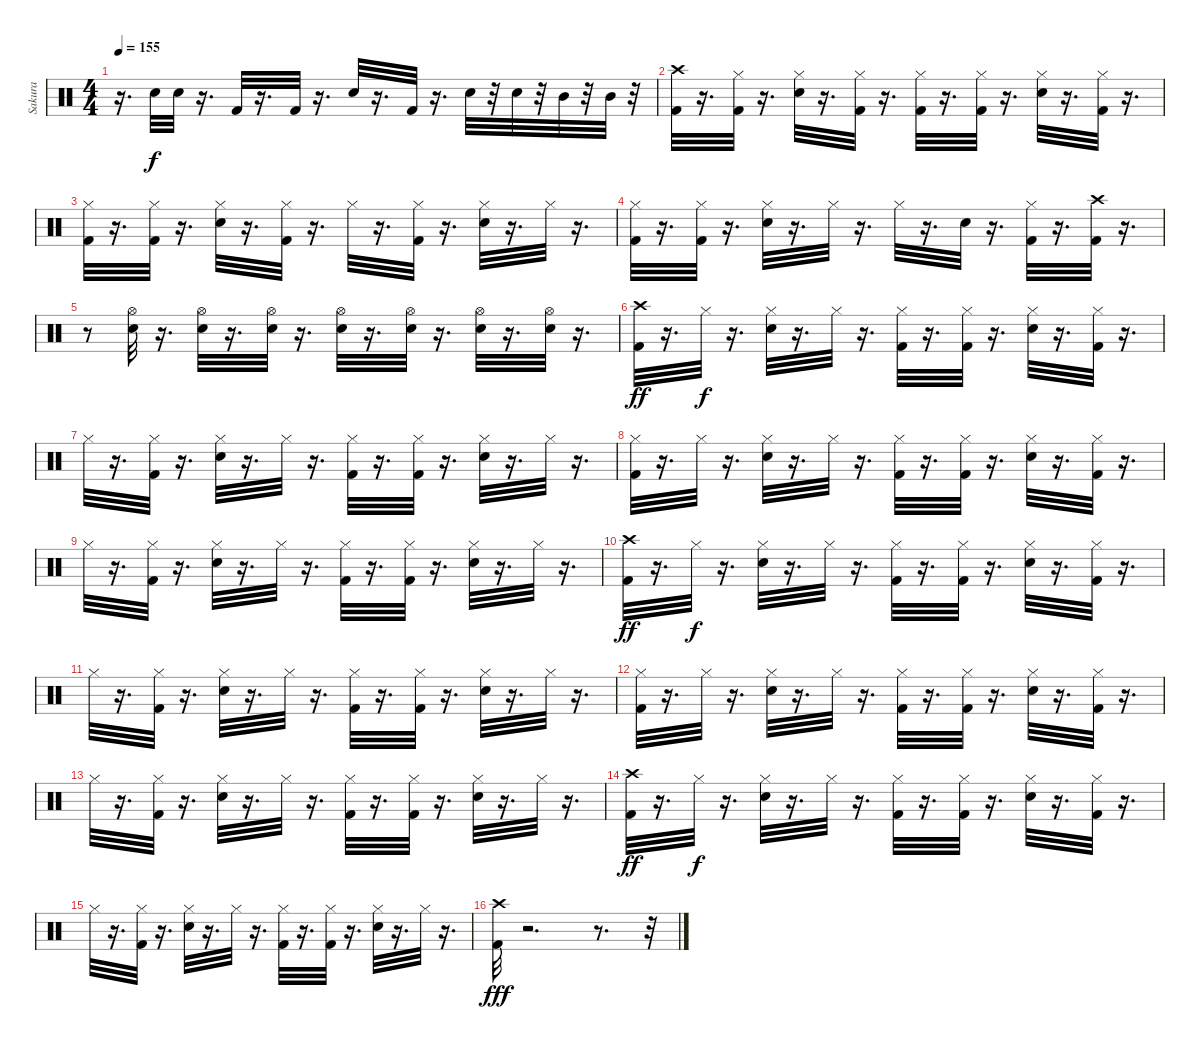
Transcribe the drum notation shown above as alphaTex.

\track ("Sakura" "Sakura") {instrument percussion}
\staff {score}
\articulation defaults
\ts (4 4)
\tempo 155
\clef neutral
\ks c
r.16{d dy fff} "Snare (hit) 2".32{dy f} "Snare (hit) 2".32 r.16{d} "Kick (hit) 2".32 r.16{d} "Kick (hit) 2".32 r.16{d} "Snare (hit) 2".32 r.16{d} "Kick (hit) 2".32 r.16{d} "Snare (hit) 2".32 r.32 "Snare (hit) 2".32 r.32 "Mid Tom (hit)".32 r.32 "Mid Tom (hit)".32 r.32 |
("Crash high (hit)" "Kick (hit) 2").32 r.16{d} ("Hi-Hat (closed)" "Kick (hit) 2").32 r.16{d} ("Hi-Hat (closed)" "Snare (hit) 2").32 r.16{d} ("Hi-Hat (closed)" "Kick (hit) 2").32 r.16{d} ("Kick (hit) 2" "Hi-Hat (closed)").32 r.16{d} ("Kick (hit) 2" "Hi-Hat (closed)").32 r.16{d} ("Hi-Hat (closed)" "Snare (hit) 2").32 r.16{d} ("Kick (hit) 2" "Hi-Hat (closed)").32 r.16{d} |
("Kick (hit) 2" "Hi-Hat (closed)").32 r.16{d} ("Kick (hit) 2" "Hi-Hat (closed)").32 r.16{d} ("Hi-Hat (closed)" "Snare (hit) 2").32 r.16{d} ("Kick (hit) 2" "Hi-Hat (closed)").32 r.16{d} "Hi-Hat (closed)".32 r.16{d} ("Hi-Hat (closed)" "Kick (hit) 2").32 r.16{d} ("Hi-Hat (closed)" "Snare (hit) 2").32 r.16{d} "Hi-Hat (closed)".32 r.16{d} |
("Hi-Hat (closed)" "Kick (hit) 2").32 r.16{d} ("Hi-Hat (closed)" "Kick (hit) 2").32 r.16{d} ("Hi-Hat (closed)" "Snare (hit) 2").32 r.16{d} "Hi-Hat (closed)".32 r.16{d} "Hi-Hat (closed)".32 r.16{d} "Snare (hit) 2".32 r.16{d} ("Hi-Hat (closed)" "Kick (hit) 2").32 r.16{d} ("Crash high (hit)" "Kick (hit) 2").32 r.16{d} |
r.8 ("Hi-Hat (open)" "Snare (hit) 2").32 r.16{d} ("Hi-Hat (open)" "Snare (hit) 2").32 r.16{d} ("Hi-Hat (open)" "Snare (hit) 2").32 r.16{d} ("Hi-Hat (open)" "Snare (hit) 2").32 r.16{d} ("Hi-Hat (open)" "Snare (hit) 2").32 r.16{d} ("Hi-Hat (open)" "Snare (hit) 2").32 r.16{d} ("Hi-Hat (open)" "Snare (hit) 2").32 r.16{d} |
("Crash high (hit)" "Kick (hit) 2").32{dy ff} r.16{d} "Hi-Hat (closed)".32{dy f} r.16{d} ("Hi-Hat (closed)" "Snare (hit) 2").32 r.16{d} "Hi-Hat (closed)".32 r.16{d} ("Hi-Hat (closed)" "Kick (hit) 2").32 r.16{d} ("Hi-Hat (closed)" "Kick (hit) 2").32 r.16{d} ("Hi-Hat (closed)" "Snare (hit) 2").32 r.16{d} ("Hi-Hat (closed)" "Kick (hit) 2").32 r.16{d} |
"Hi-Hat (closed)".32 r.16{d} ("Hi-Hat (closed)" "Kick (hit) 2").32 r.16{d} ("Hi-Hat (closed)" "Snare (hit) 2").32 r.16{d} "Hi-Hat (closed)".32 r.16{d} ("Hi-Hat (closed)" "Kick (hit) 2").32 r.16{d} ("Hi-Hat (closed)" "Kick (hit) 2").32 r.16{d} ("Hi-Hat (closed)" "Snare (hit) 2").32 r.16{d} "Hi-Hat (closed)".32 r.16{d} |
("Hi-Hat (closed)" "Kick (hit) 2").32 r.16{d} "Hi-Hat (closed)".32 r.16{d} ("Hi-Hat (closed)" "Snare (hit) 2").32 r.16{d} "Hi-Hat (closed)".32 r.16{d} ("Hi-Hat (closed)" "Kick (hit) 2").32 r.16{d} ("Hi-Hat (closed)" "Kick (hit) 2").32 r.16{d} ("Hi-Hat (closed)" "Snare (hit) 2").32 r.16{d} ("Hi-Hat (closed)" "Kick (hit) 2").32 r.16{d} |
"Hi-Hat (closed)".32 r.16{d} ("Hi-Hat (closed)" "Kick (hit) 2").32 r.16{d} ("Hi-Hat (closed)" "Snare (hit) 2").32 r.16{d} "Hi-Hat (closed)".32 r.16{d} ("Hi-Hat (closed)" "Kick (hit) 2").32 r.16{d} ("Hi-Hat (closed)" "Kick (hit) 2").32 r.16{d} ("Hi-Hat (closed)" "Snare (hit) 2").32 r.16{d} "Hi-Hat (closed)".32 r.16{d} |
("Crash high (hit)" "Kick (hit) 2").32{dy ff} r.16{d} "Hi-Hat (closed)".32{dy f} r.16{d} ("Hi-Hat (closed)" "Snare (hit) 2").32 r.16{d} "Hi-Hat (closed)".32 r.16{d} ("Hi-Hat (closed)" "Kick (hit) 2").32 r.16{d} ("Hi-Hat (closed)" "Kick (hit) 2").32 r.16{d} ("Hi-Hat (closed)" "Snare (hit) 2").32 r.16{d} ("Hi-Hat (closed)" "Kick (hit) 2").32 r.16{d} |
"Hi-Hat (closed)".32 r.16{d} ("Hi-Hat (closed)" "Kick (hit) 2").32 r.16{d} ("Hi-Hat (closed)" "Snare (hit) 2").32 r.16{d} "Hi-Hat (closed)".32 r.16{d} ("Hi-Hat (closed)" "Kick (hit) 2").32 r.16{d} ("Hi-Hat (closed)" "Kick (hit) 2").32 r.16{d} ("Hi-Hat (closed)" "Snare (hit) 2").32 r.16{d} "Hi-Hat (closed)".32 r.16{d} |
("Hi-Hat (closed)" "Kick (hit) 2").32 r.16{d} "Hi-Hat (closed)".32 r.16{d} ("Hi-Hat (closed)" "Snare (hit) 2").32 r.16{d} "Hi-Hat (closed)".32 r.16{d} ("Hi-Hat (closed)" "Kick (hit) 2").32 r.16{d} ("Hi-Hat (closed)" "Kick (hit) 2").32 r.16{d} ("Hi-Hat (closed)" "Snare (hit) 2").32 r.16{d} ("Hi-Hat (closed)" "Kick (hit) 2").32 r.16{d} |
"Hi-Hat (closed)".32 r.16{d} ("Hi-Hat (closed)" "Kick (hit) 2").32 r.16{d} ("Hi-Hat (closed)" "Snare (hit) 2").32 r.16{d} "Hi-Hat (closed)".32 r.16{d} ("Hi-Hat (closed)" "Kick (hit) 2").32 r.16{d} ("Hi-Hat (closed)" "Kick (hit) 2").32 r.16{d} ("Hi-Hat (closed)" "Snare (hit) 2").32 r.16{d} "Hi-Hat (closed)".32 r.16{d} |
("Crash high (hit)" "Kick (hit) 2").32{dy ff} r.16{d} "Hi-Hat (closed)".32{dy f} r.16{d} ("Hi-Hat (closed)" "Snare (hit) 2").32 r.16{d} "Hi-Hat (closed)".32 r.16{d} ("Hi-Hat (closed)" "Kick (hit) 2").32 r.16{d} ("Hi-Hat (closed)" "Kick (hit) 2").32 r.16{d} ("Hi-Hat (closed)" "Snare (hit) 2").32 r.16{d} ("Hi-Hat (closed)" "Kick (hit) 2").32 r.16{d} |
"Hi-Hat (closed)".32 r.16{d} ("Hi-Hat (closed)" "Kick (hit) 2").32 r.16{d} ("Hi-Hat (closed)" "Snare (hit) 2").32 r.16{d} "Hi-Hat (closed)".32 r.16{d} ("Hi-Hat (closed)" "Kick (hit) 2").32 r.16{d} ("Hi-Hat (closed)" "Kick (hit) 2").32 r.16{d} ("Hi-Hat (closed)" "Snare (hit) 2").32 r.16{d} "Hi-Hat (closed)".32 r.16{d} |
("Crash high (hit)" "Kick (hit) 2").32{dy fff} r.2{d} r.8{d} r.32
